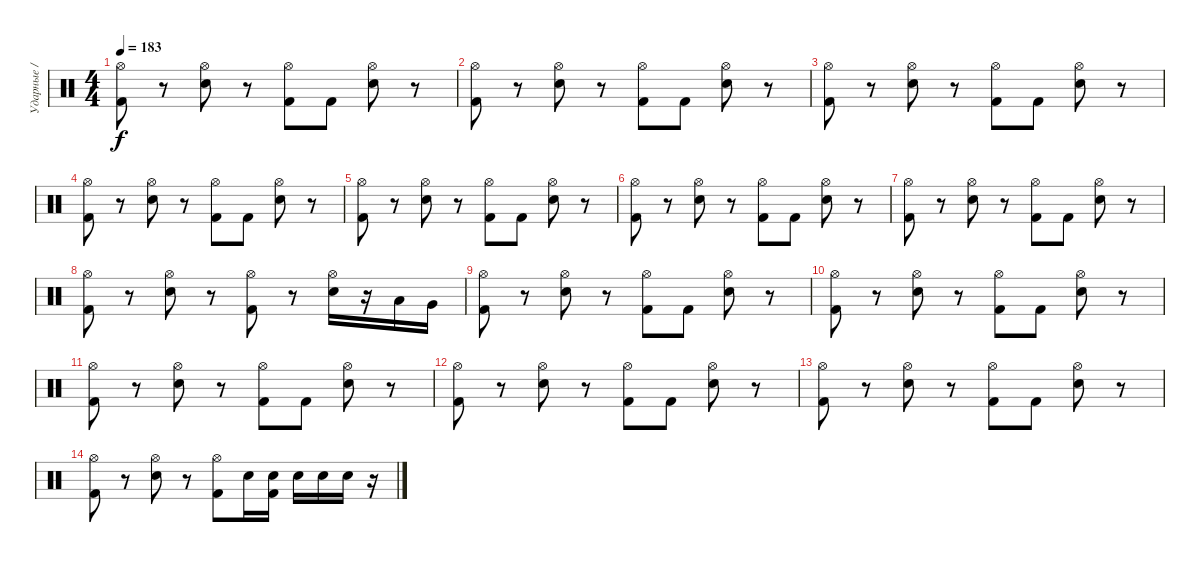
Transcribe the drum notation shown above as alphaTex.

\track ("Ударные / Drums" "Ударные / ") {instrument percussion}
\staff {score}
\articulation defaults
\ts (4 4)
\tempo 183
\clef neutral
\ks c
("Hi-Hat (open)" "Kick (hit) 2").8{dy f} r.8 ("Hi-Hat (open)" "Snare (hit) 2").8 r.8 ("Hi-Hat (open)" "Kick (hit) 2").8 "Kick (hit) 2".8 ("Hi-Hat (open)" "Snare (hit) 2").8 r.8 |
("Hi-Hat (open)" "Kick (hit) 2").8 r.8 ("Hi-Hat (open)" "Snare (hit) 2").8 r.8 ("Hi-Hat (open)" "Kick (hit) 2").8 "Kick (hit) 2".8 ("Hi-Hat (open)" "Snare (hit) 2").8 r.8 |
("Hi-Hat (open)" "Kick (hit) 2").8 r.8 ("Hi-Hat (open)" "Snare (hit) 2").8 r.8 ("Hi-Hat (open)" "Kick (hit) 2").8 "Kick (hit) 2".8 ("Hi-Hat (open)" "Snare (hit) 2").8 r.8 |
("Hi-Hat (open)" "Kick (hit) 2").8 r.8 ("Hi-Hat (open)" "Snare (hit) 2").8 r.8 ("Hi-Hat (open)" "Kick (hit) 2").8 "Kick (hit) 2".8 ("Hi-Hat (open)" "Snare (hit) 2").8 r.8 |
("Hi-Hat (open)" "Kick (hit) 2").8 r.8 ("Hi-Hat (open)" "Snare (hit) 2").8 r.8 ("Hi-Hat (open)" "Kick (hit) 2").8 "Kick (hit) 2".8 ("Hi-Hat (open)" "Snare (hit) 2").8 r.8 |
("Hi-Hat (open)" "Kick (hit) 2").8 r.8 ("Hi-Hat (open)" "Snare (hit) 2").8 r.8 ("Hi-Hat (open)" "Kick (hit) 2").8 "Kick (hit) 2".8 ("Hi-Hat (open)" "Snare (hit) 2").8 r.8 |
("Hi-Hat (open)" "Kick (hit) 2").8 r.8 ("Hi-Hat (open)" "Snare (hit) 2").8 r.8 ("Hi-Hat (open)" "Kick (hit) 2").8 "Kick (hit) 2".8 ("Hi-Hat (open)" "Snare (hit) 2").8 r.8 |
("Hi-Hat (open)" "Kick (hit) 2").8 r.8 ("Hi-Hat (open)" "Snare (hit) 2").8 r.8 ("Hi-Hat (open)" "Kick (hit) 2").8 r.8 ("Hi-Hat (open)" "Snare (hit) 2").16 r.16 "Low Tom (hit)".16 "Very Low Tom (hit)".16 |
("Hi-Hat (open)" "Kick (hit) 2").8 r.8 ("Hi-Hat (open)" "Snare (hit) 2").8 r.8 ("Hi-Hat (open)" "Kick (hit) 2").8 "Kick (hit) 2".8 ("Hi-Hat (open)" "Snare (hit) 2").8 r.8 |
("Hi-Hat (open)" "Kick (hit) 2").8 r.8 ("Hi-Hat (open)" "Snare (hit) 2").8 r.8 ("Hi-Hat (open)" "Kick (hit) 2").8 "Kick (hit) 2".8 ("Hi-Hat (open)" "Snare (hit) 2").8 r.8 |
("Hi-Hat (open)" "Kick (hit) 2").8 r.8 ("Hi-Hat (open)" "Snare (hit) 2").8 r.8 ("Hi-Hat (open)" "Kick (hit) 2").8 "Kick (hit) 2".8 ("Hi-Hat (open)" "Snare (hit) 2").8 r.8 |
("Hi-Hat (open)" "Kick (hit) 2").8 r.8 ("Hi-Hat (open)" "Snare (hit) 2").8 r.8 ("Hi-Hat (open)" "Kick (hit) 2").8 "Kick (hit) 2".8 ("Hi-Hat (open)" "Snare (hit) 2").8 r.8 |
("Hi-Hat (open)" "Kick (hit) 2").8 r.8 ("Hi-Hat (open)" "Snare (hit) 2").8 r.8 ("Hi-Hat (open)" "Kick (hit) 2").8 "Kick (hit) 2".8 ("Hi-Hat (open)" "Snare (hit) 2").8 r.8 |
("Hi-Hat (open)" "Kick (hit) 2").8 r.8 ("Hi-Hat (open)" "Snare (hit) 2").8 r.8 ("Hi-Hat (open)" "Kick (hit) 2").8 "Snare (hit) 2".16 ("Snare (hit) 2" "Kick (hit) 2").16 "Snare (hit) 2".16 "Snare (hit) 2".16 "Snare (hit) 2".16 r.16
